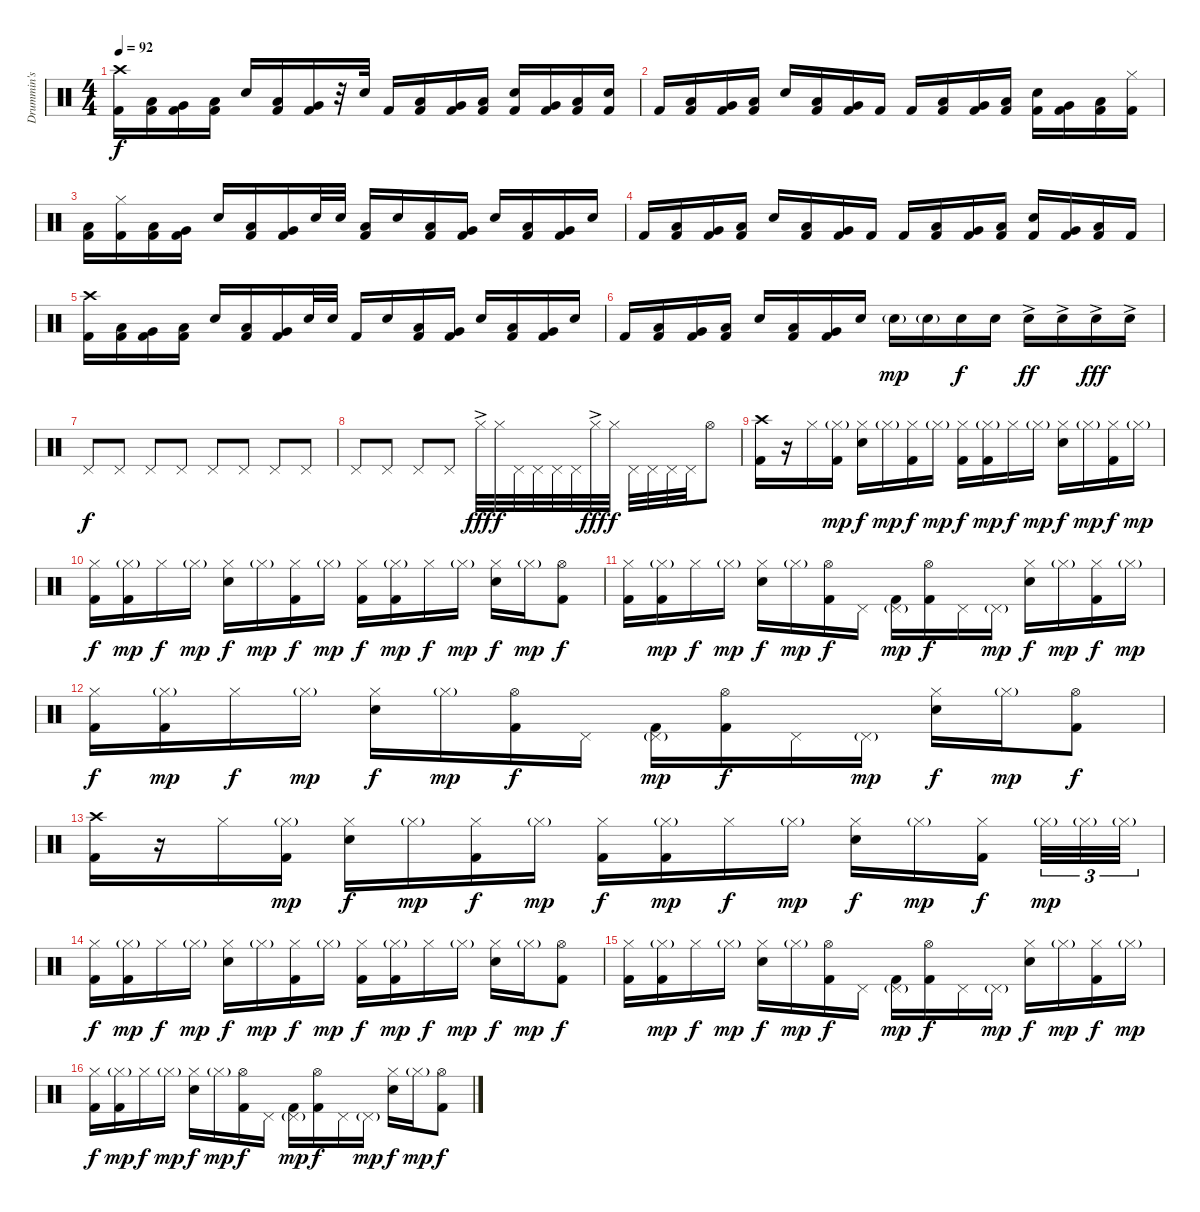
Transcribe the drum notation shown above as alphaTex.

\track ("Drummin's" "Drummin's") {instrument percussion}
\staff {score}
\articulation defaults
\ts (4 4)
\tempo 92
\clef neutral
\ks c
("Crash high (hit)" "Kick (hit) 2").16{dy f} ("Low Tom (hit)" "Kick (hit) 2").16 ("Very Low Tom (hit)" "Kick (hit) 2").16 ("Low Floor Tom (hit)" "Kick (hit) 2").16 "Snare (hit) 2".16 ("Low Tom (hit)" "Kick (hit) 2").16 ("Very Low Tom (hit)" "Kick (hit) 2").16 r.32 "Snare (hit) 2".32 "Kick (hit) 2".16 ("Low Tom (hit)" "Kick (hit) 2").16 ("Very Low Tom (hit)" "Kick (hit) 2").16 ("Low Floor Tom (hit)" "Kick (hit) 2").16 ("Snare (hit) 2" "Kick (hit) 2").16 ("Very Low Tom (hit)" "Kick (hit) 2").16 ("Low Floor Tom (hit)" "Kick (hit) 2").16 ("Snare (hit) 2" "Kick (hit) 2").16 |
"Kick (hit) 2".16 ("Low Tom (hit)" "Kick (hit) 2").16 ("Very Low Tom (hit)" "Kick (hit) 2").16 ("Low Floor Tom (hit)" "Kick (hit) 2").16 "Snare (hit) 2".16 ("Low Tom (hit)" "Kick (hit) 2").16 ("Very Low Tom (hit)" "Kick (hit) 2").16 "Kick (hit) 2".16 "Kick (hit) 2".16 ("Low Tom (hit)" "Kick (hit) 2").16 ("Very Low Tom (hit)" "Kick (hit) 2").16 ("Low Floor Tom (hit)" "Kick (hit) 2").16 ("Snare (hit) 2" "Kick (hit) 2").16 ("Very Low Tom (hit)" "Kick (hit) 2").16 ("Low Floor Tom (hit)" "Kick (hit) 2").16 ("Hi-Hat (closed)" "Kick (hit) 2").16 |
("Low Tom (hit)" "Kick (hit) 2").16 ("Hi-Hat (closed)" "Kick (hit) 2").16 ("Low Tom (hit)" "Kick (hit) 2").16 ("Very Low Tom (hit)" "Kick (hit) 2").16 "Snare (hit) 2".16 ("Low Tom (hit)" "Kick (hit) 2").16 ("Very Low Tom (hit)" "Kick (hit) 2").16 "Snare (hit) 2".32 "Snare (hit) 2".32 ("Low Floor Tom (hit)" "Kick (hit) 2").16 "Snare (hit) 2".16 ("Low Tom (hit)" "Kick (hit) 2").16 ("Very Low Tom (hit)" "Kick (hit) 2").16 "Snare (hit) 2".16 ("Low Tom (hit)" "Kick (hit) 2").16 ("Very Low Tom (hit)" "Kick (hit) 2").16 "Snare (hit) 2".16 |
"Kick (hit) 2".16 ("Low Tom (hit)" "Kick (hit) 2").16 ("Very Low Tom (hit)" "Kick (hit) 2").16 ("Low Floor Tom (hit)" "Kick (hit) 2").16 "Snare (hit) 2".16 ("Low Tom (hit)" "Kick (hit) 2").16 ("Very Low Tom (hit)" "Kick (hit) 2").16 "Kick (hit) 2".16 "Kick (hit) 2".16 ("Low Tom (hit)" "Kick (hit) 2").16 ("Very Low Tom (hit)" "Kick (hit) 2").16 ("Low Floor Tom (hit)" "Kick (hit) 2").16 ("Snare (hit) 2" "Kick (hit) 2").16 ("Very Low Tom (hit)" "Kick (hit) 2").16 ("Low Floor Tom (hit)" "Kick (hit) 2").16 "Kick (hit) 2".16 |
("Crash high (hit)" "Kick (hit) 2").16 ("Low Tom (hit)" "Kick (hit) 2").16 ("Very Low Tom (hit)" "Kick (hit) 2").16 ("Low Floor Tom (hit)" "Kick (hit) 2").16 "Snare (hit) 2".16 ("Low Tom (hit)" "Kick (hit) 2").16 ("Very Low Tom (hit)" "Kick (hit) 2").16 "Snare (hit) 2".32 "Snare (hit) 2".32 "Kick (hit) 2".16 "Snare (hit) 2".16 ("Low Tom (hit)" "Kick (hit) 2").16 ("Very Low Tom (hit)" "Kick (hit) 2").16 "Snare (hit) 2".16 ("Low Tom (hit)" "Kick (hit) 2").16 ("Very Low Tom (hit)" "Kick (hit) 2").16 "Snare (hit) 2".16 |
"Kick (hit) 2".16 ("Low Tom (hit)" "Kick (hit) 2").16 ("Very Low Tom (hit)" "Kick (hit) 2").16 ("Low Floor Tom (hit)" "Kick (hit) 2").16 "Snare (hit) 2".16 ("Low Tom (hit)" "Kick (hit) 2").16 ("Very Low Tom (hit)" "Kick (hit) 2").16 "Snare (hit) 2".16 "Snare (hit) 2"{g}.16{dy mp} "Snare (hit) 2"{g}.16 "Snare (hit) 2".16{dy f} "Snare (hit) 2".16 "Snare (hit) 2"{ac}.16{dy ff} "Snare (hit) 2"{ac}.16 "Snare (hit) 2"{ac}.16{dy fff} "Snare (hit) 2"{ac}.16 |
"Pedal Hi-Hat (hit)".8{dy f} "Pedal Hi-Hat (hit)".8 "Pedal Hi-Hat (hit)".8 "Pedal Hi-Hat (hit)".8 "Pedal Hi-Hat (hit)".8 "Pedal Hi-Hat (hit)".8 "Pedal Hi-Hat (hit)".8 "Pedal Hi-Hat (hit)".8 |
"Pedal Hi-Hat (hit)".8 "Pedal Hi-Hat (hit)".8 "Pedal Hi-Hat (hit)".8 "Pedal Hi-Hat (hit)".8 "Hi-Hat (closed)"{ac}.32{dy fff} "Hi-Hat (closed)".32{dy f} "Pedal Hi-Hat (hit)".32 "Pedal Hi-Hat (hit)".32 "Pedal Hi-Hat (hit)".32 "Pedal Hi-Hat (hit)".32 "Hi-Hat (closed)"{ac}.32{dy fff} "Hi-Hat (closed)".32{dy f} "Pedal Hi-Hat (hit)".32 "Pedal Hi-Hat (hit)".32 "Pedal Hi-Hat (hit)".32 "Pedal Hi-Hat (hit)".32 "Hi-Hat (open)".8 |
("Crash high (hit)" "Kick (hit) 2").16 r.16 "Hi-Hat (closed)".16 ("Hi-Hat (closed)"{g} "Kick (hit) 2").16{dy mp} ("Hi-Hat (closed)" "Snare (hit) 2").16{dy f} "Hi-Hat (closed)"{g}.16{dy mp} ("Hi-Hat (closed)" "Kick (hit) 2").16{dy f} "Hi-Hat (closed)"{g}.16{dy mp} ("Hi-Hat (closed)" "Kick (hit) 2").16{dy f} ("Hi-Hat (closed)"{g} "Kick (hit) 2").16{dy mp} "Hi-Hat (closed)".16{dy f} "Hi-Hat (closed)"{g}.16{dy mp} ("Hi-Hat (closed)" "Snare (hit) 2").16{dy f} "Hi-Hat (closed)"{g}.16{dy mp} ("Hi-Hat (closed)" "Kick (hit) 2").16{dy f} "Hi-Hat (closed)"{g}.16{dy mp} |
("Hi-Hat (closed)" "Kick (hit) 2").16{dy f} ("Hi-Hat (closed)"{g} "Kick (hit) 2").16{dy mp} "Hi-Hat (closed)".16{dy f} "Hi-Hat (closed)"{g}.16{dy mp} ("Hi-Hat (closed)" "Snare (hit) 2").16{dy f} "Hi-Hat (closed)"{g}.16{dy mp} ("Hi-Hat (closed)" "Kick (hit) 2").16{dy f} "Hi-Hat (closed)"{g}.16{dy mp} ("Hi-Hat (closed)" "Kick (hit) 2").16{dy f} ("Hi-Hat (closed)"{g} "Kick (hit) 2").16{dy mp} "Hi-Hat (closed)".16{dy f} "Hi-Hat (closed)"{g}.16{dy mp} ("Hi-Hat (closed)" "Snare (hit) 2").16{dy f} "Hi-Hat (closed)"{g}.16{dy mp} ("Hi-Hat (open)" "Kick (hit) 2").8{dy f} |
("Hi-Hat (closed)" "Kick (hit) 2").16 ("Hi-Hat (closed)"{g} "Kick (hit) 2").16{dy mp} "Hi-Hat (closed)".16{dy f} "Hi-Hat (closed)"{g}.16{dy mp} ("Hi-Hat (closed)" "Snare (hit) 2").16{dy f} "Hi-Hat (closed)"{g}.16{dy mp} ("Hi-Hat (open)" "Kick (hit) 2").16{dy f} "Pedal Hi-Hat (hit)".16 ("Pedal Hi-Hat (hit)"{g} "Kick (hit) 2").16{dy mp} ("Hi-Hat (open)" "Kick (hit) 2").16{dy f} "Pedal Hi-Hat (hit)".16 "Pedal Hi-Hat (hit)"{g}.16{dy mp} ("Hi-Hat (closed)" "Snare (hit) 2").16{dy f} "Hi-Hat (closed)"{g}.16{dy mp} ("Hi-Hat (closed)" "Kick (hit) 2").16{dy f} "Hi-Hat (closed)"{g}.16{dy mp} |
("Hi-Hat (closed)" "Kick (hit) 2").16{dy f} ("Hi-Hat (closed)"{g} "Kick (hit) 2").16{dy mp} "Hi-Hat (closed)".16{dy f} "Hi-Hat (closed)"{g}.16{dy mp} ("Hi-Hat (closed)" "Snare (hit) 2").16{dy f} "Hi-Hat (closed)"{g}.16{dy mp} ("Hi-Hat (open)" "Kick (hit) 2").16{dy f} "Pedal Hi-Hat (hit)".16 ("Pedal Hi-Hat (hit)"{g} "Kick (hit) 2").16{dy mp} ("Hi-Hat (open)" "Kick (hit) 2").16{dy f} "Pedal Hi-Hat (hit)".16 "Pedal Hi-Hat (hit)"{g}.16{dy mp} ("Hi-Hat (closed)" "Snare (hit) 2").16{dy f} "Hi-Hat (closed)"{g}.16{dy mp} ("Hi-Hat (open)" "Kick (hit) 2").8{dy f} |
("Crash high (hit)" "Kick (hit) 2").16 r.16 "Hi-Hat (closed)".16 ("Hi-Hat (closed)"{g} "Kick (hit) 2").16{dy mp} ("Hi-Hat (closed)" "Snare (hit) 2").16{dy f} "Hi-Hat (closed)"{g}.16{dy mp} ("Hi-Hat (closed)" "Kick (hit) 2").16{dy f} "Hi-Hat (closed)"{g}.16{dy mp} ("Hi-Hat (closed)" "Kick (hit) 2").16{dy f} ("Hi-Hat (closed)"{g} "Kick (hit) 2").16{dy mp} "Hi-Hat (closed)".16{dy f} "Hi-Hat (closed)"{g}.16{dy mp} ("Hi-Hat (closed)" "Snare (hit) 2").16{dy f} "Hi-Hat (closed)"{g}.16{dy mp} ("Hi-Hat (closed)" "Kick (hit) 2").16{dy f} "Hi-Hat (closed)"{g}.32{tu (3 2) dy mp} "Hi-Hat (closed)"{g}.32{tu (3 2)} "Hi-Hat (closed)"{g}.32{tu (3 2)} |
("Hi-Hat (closed)" "Kick (hit) 2").16{dy f} ("Hi-Hat (closed)"{g} "Kick (hit) 2").16{dy mp} "Hi-Hat (closed)".16{dy f} "Hi-Hat (closed)"{g}.16{dy mp} ("Hi-Hat (closed)" "Snare (hit) 2").16{dy f} "Hi-Hat (closed)"{g}.16{dy mp} ("Hi-Hat (closed)" "Kick (hit) 2").16{dy f} "Hi-Hat (closed)"{g}.16{dy mp} ("Hi-Hat (closed)" "Kick (hit) 2").16{dy f} ("Hi-Hat (closed)"{g} "Kick (hit) 2").16{dy mp} "Hi-Hat (closed)".16{dy f} "Hi-Hat (closed)"{g}.16{dy mp} ("Hi-Hat (closed)" "Snare (hit) 2").16{dy f} "Hi-Hat (closed)"{g}.16{dy mp} ("Hi-Hat (open)" "Kick (hit) 2").8{dy f} |
("Hi-Hat (closed)" "Kick (hit) 2").16 ("Hi-Hat (closed)"{g} "Kick (hit) 2").16{dy mp} "Hi-Hat (closed)".16{dy f} "Hi-Hat (closed)"{g}.16{dy mp} ("Hi-Hat (closed)" "Snare (hit) 2").16{dy f} "Hi-Hat (closed)"{g}.16{dy mp} ("Hi-Hat (open)" "Kick (hit) 2").16{dy f} "Pedal Hi-Hat (hit)".16 ("Pedal Hi-Hat (hit)"{g} "Kick (hit) 2").16{dy mp} ("Hi-Hat (open)" "Kick (hit) 2").16{dy f} "Pedal Hi-Hat (hit)".16 "Pedal Hi-Hat (hit)"{g}.16{dy mp} ("Hi-Hat (closed)" "Snare (hit) 2").16{dy f} "Hi-Hat (closed)"{g}.16{dy mp} ("Hi-Hat (closed)" "Kick (hit) 2").16{dy f} "Hi-Hat (closed)"{g}.16{dy mp} |
("Hi-Hat (closed)" "Kick (hit) 2").16{dy f} ("Hi-Hat (closed)"{g} "Kick (hit) 2").16{dy mp} "Hi-Hat (closed)".16{dy f} "Hi-Hat (closed)"{g}.16{dy mp} ("Hi-Hat (closed)" "Snare (hit) 2").16{dy f} "Hi-Hat (closed)"{g}.16{dy mp} ("Hi-Hat (open)" "Kick (hit) 2").16{dy f} "Pedal Hi-Hat (hit)".16 ("Pedal Hi-Hat (hit)"{g} "Kick (hit) 2").16{dy mp} ("Hi-Hat (open)" "Kick (hit) 2").16{dy f} "Pedal Hi-Hat (hit)".16 "Pedal Hi-Hat (hit)"{g}.16{dy mp} ("Hi-Hat (closed)" "Snare (hit) 2").16{dy f} "Hi-Hat (closed)"{g}.16{dy mp} ("Hi-Hat (open)" "Kick (hit) 2").8{dy f}
